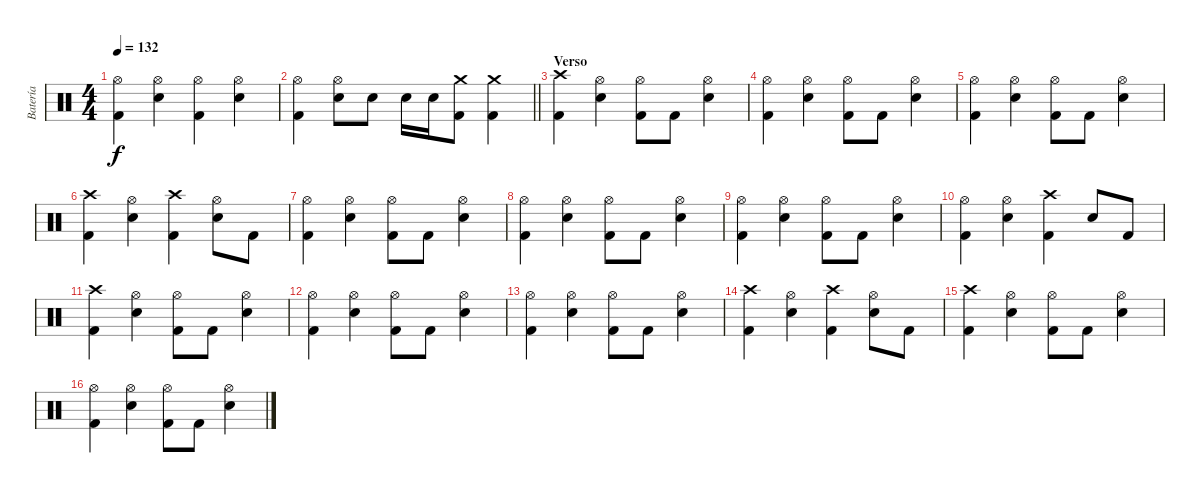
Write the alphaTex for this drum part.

\track ("Batería" "Batería") {instrument percussion}
\staff {score}
\articulation defaults
\ts (4 4)
\tempo 132
\clef neutral
\ks c
("Hi-Hat (open)" "Kick (hit) 2").4{dy f} ("Hi-Hat (open)" "Electric Snare (hit)").4 ("Hi-Hat (open)" "Kick (hit) 2").4 ("Hi-Hat (open)" "Electric Snare (hit)").4 |
\barLineRight lightlight
("Hi-Hat (open)" "Kick (hit) 2").4 ("Hi-Hat (open)" "Electric Snare (hit)").8 "Electric Snare (hit)".8 "Electric Snare (hit)".16 "Electric Snare (hit)".16 ("Kick (hit) 2" "Crash medium (hit)").8 ("Kick (hit) 2" "Crash medium (hit)").4 |
\section ("" "Verso")
("Crash high (hit)" "Kick (hit) 2").4 ("Hi-Hat (open)" "Electric Snare (hit)").4 ("Kick (hit) 2" "Hi-Hat (open)").8 "Kick (hit) 2".8 ("Hi-Hat (open)" "Electric Snare (hit)").4 |
("Hi-Hat (open)" "Kick (hit) 2").4 ("Hi-Hat (open)" "Electric Snare (hit)").4 ("Kick (hit) 2" "Hi-Hat (open)").8 "Kick (hit) 2".8 ("Hi-Hat (open)" "Electric Snare (hit)").4 |
("Hi-Hat (open)" "Kick (hit) 2").4 ("Hi-Hat (open)" "Electric Snare (hit)").4 ("Kick (hit) 2" "Hi-Hat (open)").8 "Kick (hit) 2".8 ("Hi-Hat (open)" "Electric Snare (hit)").4 |
("Crash high (hit)" "Kick (hit) 2").4 ("Hi-Hat (open)" "Electric Snare (hit)").4 ("Kick (hit) 2" "Crash high (hit)").4 ("Hi-Hat (open)" "Electric Snare (hit)").8 "Kick (hit) 2".8 |
("Hi-Hat (open)" "Kick (hit) 2").4 ("Hi-Hat (open)" "Electric Snare (hit)").4 ("Kick (hit) 2" "Hi-Hat (open)").8 "Kick (hit) 2".8 ("Hi-Hat (open)" "Electric Snare (hit)").4 |
("Hi-Hat (open)" "Kick (hit) 2").4 ("Hi-Hat (open)" "Electric Snare (hit)").4 ("Kick (hit) 2" "Hi-Hat (open)").8 "Kick (hit) 2".8 ("Hi-Hat (open)" "Electric Snare (hit)").4 |
("Hi-Hat (open)" "Kick (hit) 2").4 ("Hi-Hat (open)" "Electric Snare (hit)").4 ("Kick (hit) 2" "Hi-Hat (open)").8 "Kick (hit) 2".8 ("Hi-Hat (open)" "Electric Snare (hit)").4 |
("Hi-Hat (open)" "Kick (hit) 2").4 ("Hi-Hat (open)" "Electric Snare (hit)").4 ("Kick (hit) 2" "Crash high (hit)").4 "Electric Snare (hit)".8 "Kick (hit) 2".8 |
("Crash high (hit)" "Kick (hit) 2").4 ("Hi-Hat (open)" "Electric Snare (hit)").4 ("Kick (hit) 2" "Hi-Hat (open)").8 "Kick (hit) 2".8 ("Hi-Hat (open)" "Electric Snare (hit)").4 |
("Hi-Hat (open)" "Kick (hit) 2").4 ("Hi-Hat (open)" "Electric Snare (hit)").4 ("Kick (hit) 2" "Hi-Hat (open)").8 "Kick (hit) 2".8 ("Hi-Hat (open)" "Electric Snare (hit)").4 |
("Hi-Hat (open)" "Kick (hit) 2").4 ("Hi-Hat (open)" "Electric Snare (hit)").4 ("Kick (hit) 2" "Hi-Hat (open)").8 "Kick (hit) 2".8 ("Hi-Hat (open)" "Electric Snare (hit)").4 |
("Crash high (hit)" "Kick (hit) 2").4 ("Hi-Hat (open)" "Electric Snare (hit)").4 ("Kick (hit) 2" "Crash high (hit)").4 ("Hi-Hat (open)" "Electric Snare (hit)").8 "Kick (hit) 2".8 |
("Crash high (hit)" "Kick (hit) 2").4 ("Hi-Hat (open)" "Electric Snare (hit)").4 ("Kick (hit) 2" "Hi-Hat (open)").8 "Kick (hit) 2".8 ("Hi-Hat (open)" "Electric Snare (hit)").4 |
("Hi-Hat (open)" "Kick (hit) 2").4 ("Hi-Hat (open)" "Electric Snare (hit)").4 ("Kick (hit) 2" "Hi-Hat (open)").8 "Kick (hit) 2".8 ("Hi-Hat (open)" "Electric Snare (hit)").4
